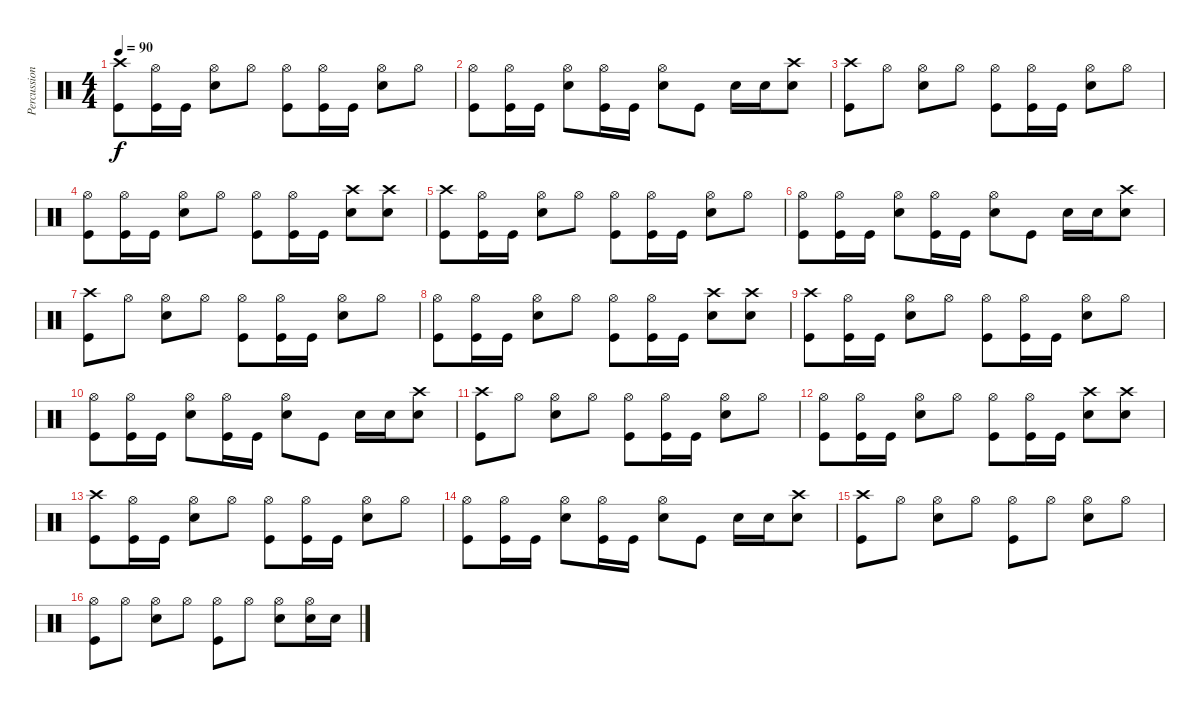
\track ("Percussion" "Percussion") {instrument percussion}
\staff {score}
\articulation defaults
\ts (4 4)
\tempo 90
\clef neutral
\ks c
("Crash high (hit)" "Kick (hit)").8{dy f} ("Hi-Hat (open)" "Kick (hit)").16 "Kick (hit)".16 ("Hi-Hat (open)" "Snare (hit) 2").8 "Hi-Hat (open)".8 ("Hi-Hat (open)" "Kick (hit)").8 ("Hi-Hat (open)" "Kick (hit)").16 "Kick (hit)".16 ("Hi-Hat (open)" "Snare (hit) 2").8 "Hi-Hat (open)".8 |
("Hi-Hat (open)" "Kick (hit)").8 ("Hi-Hat (open)" "Kick (hit)").16 "Kick (hit)".16 ("Hi-Hat (open)" "Snare (hit) 2").8 ("Hi-Hat (open)" "Kick (hit)").16 "Kick (hit)".16 ("Hi-Hat (open)" "Snare (hit) 2").8 "Kick (hit)".8 "Snare (hit) 2".16 "Snare (hit) 2".16 ("Crash high (hit)" "Snare (hit) 2").8 |
("Crash high (hit)" "Kick (hit)").8 "Hi-Hat (open)".8 ("Hi-Hat (open)" "Snare (hit) 2").8 "Hi-Hat (open)".8 ("Hi-Hat (open)" "Kick (hit)").8 ("Hi-Hat (open)" "Kick (hit)").16 "Kick (hit)".16 ("Hi-Hat (open)" "Snare (hit) 2").8 "Hi-Hat (open)".8 |
("Hi-Hat (open)" "Kick (hit)").8 ("Hi-Hat (open)" "Kick (hit)").16 "Kick (hit)".16 ("Hi-Hat (open)" "Snare (hit) 2").8 "Hi-Hat (open)".8 ("Hi-Hat (open)" "Kick (hit)").8 ("Hi-Hat (open)" "Kick (hit)").16 "Kick (hit)".16 ("Crash high (hit)" "Snare (hit) 2").8 ("Crash high (hit)" "Snare (hit) 2").8 |
("Crash high (hit)" "Kick (hit)").8 ("Hi-Hat (open)" "Kick (hit)").16 "Kick (hit)".16 ("Hi-Hat (open)" "Snare (hit) 2").8 "Hi-Hat (open)".8 ("Hi-Hat (open)" "Kick (hit)").8 ("Hi-Hat (open)" "Kick (hit)").16 "Kick (hit)".16 ("Hi-Hat (open)" "Snare (hit) 2").8 "Hi-Hat (open)".8 |
("Hi-Hat (open)" "Kick (hit)").8 ("Hi-Hat (open)" "Kick (hit)").16 "Kick (hit)".16 ("Hi-Hat (open)" "Snare (hit) 2").8 ("Hi-Hat (open)" "Kick (hit)").16 "Kick (hit)".16 ("Hi-Hat (open)" "Snare (hit) 2").8 "Kick (hit)".8 "Snare (hit) 2".16 "Snare (hit) 2".16 ("Crash high (hit)" "Snare (hit) 2").8 |
("Crash high (hit)" "Kick (hit)").8 "Hi-Hat (open)".8 ("Hi-Hat (open)" "Snare (hit) 2").8 "Hi-Hat (open)".8 ("Hi-Hat (open)" "Kick (hit)").8 ("Hi-Hat (open)" "Kick (hit)").16 "Kick (hit)".16 ("Hi-Hat (open)" "Snare (hit) 2").8 "Hi-Hat (open)".8 |
("Hi-Hat (open)" "Kick (hit)").8 ("Hi-Hat (open)" "Kick (hit)").16 "Kick (hit)".16 ("Hi-Hat (open)" "Snare (hit) 2").8 "Hi-Hat (open)".8 ("Hi-Hat (open)" "Kick (hit)").8 ("Hi-Hat (open)" "Kick (hit)").16 "Kick (hit)".16 ("Crash high (hit)" "Snare (hit) 2").8 ("Crash high (hit)" "Snare (hit) 2").8 |
("Crash high (hit)" "Kick (hit)").8 ("Hi-Hat (open)" "Kick (hit)").16 "Kick (hit)".16 ("Hi-Hat (open)" "Snare (hit) 2").8 "Hi-Hat (open)".8 ("Hi-Hat (open)" "Kick (hit)").8 ("Hi-Hat (open)" "Kick (hit)").16 "Kick (hit)".16 ("Hi-Hat (open)" "Snare (hit) 2").8 "Hi-Hat (open)".8 |
("Hi-Hat (open)" "Kick (hit)").8 ("Hi-Hat (open)" "Kick (hit)").16 "Kick (hit)".16 ("Hi-Hat (open)" "Snare (hit) 2").8 ("Hi-Hat (open)" "Kick (hit)").16 "Kick (hit)".16 ("Hi-Hat (open)" "Snare (hit) 2").8 "Kick (hit)".8 "Snare (hit) 2".16 "Snare (hit) 2".16 ("Crash high (hit)" "Snare (hit) 2").8 |
("Crash high (hit)" "Kick (hit)").8 "Hi-Hat (open)".8 ("Hi-Hat (open)" "Snare (hit) 2").8 "Hi-Hat (open)".8 ("Hi-Hat (open)" "Kick (hit)").8 ("Hi-Hat (open)" "Kick (hit)").16 "Kick (hit)".16 ("Hi-Hat (open)" "Snare (hit) 2").8 "Hi-Hat (open)".8 |
("Hi-Hat (open)" "Kick (hit)").8 ("Hi-Hat (open)" "Kick (hit)").16 "Kick (hit)".16 ("Hi-Hat (open)" "Snare (hit) 2").8 "Hi-Hat (open)".8 ("Hi-Hat (open)" "Kick (hit)").8 ("Hi-Hat (open)" "Kick (hit)").16 "Kick (hit)".16 ("Crash high (hit)" "Snare (hit) 2").8 ("Crash high (hit)" "Snare (hit) 2").8 |
("Crash high (hit)" "Kick (hit)").8 ("Hi-Hat (open)" "Kick (hit)").16 "Kick (hit)".16 ("Hi-Hat (open)" "Snare (hit) 2").8 "Hi-Hat (open)".8 ("Hi-Hat (open)" "Kick (hit)").8 ("Hi-Hat (open)" "Kick (hit)").16 "Kick (hit)".16 ("Hi-Hat (open)" "Snare (hit) 2").8 "Hi-Hat (open)".8 |
("Hi-Hat (open)" "Kick (hit)").8 ("Hi-Hat (open)" "Kick (hit)").16 "Kick (hit)".16 ("Hi-Hat (open)" "Snare (hit) 2").8 ("Hi-Hat (open)" "Kick (hit)").16 "Kick (hit)".16 ("Hi-Hat (open)" "Snare (hit) 2").8 "Kick (hit)".8 "Snare (hit) 2".16 "Snare (hit) 2".16 ("Crash high (hit)" "Snare (hit) 2").8 |
("Crash high (hit)" "Kick (hit)").8 "Hi-Hat (open)".8 ("Hi-Hat (open)" "Snare (hit) 2").8 "Hi-Hat (open)".8 ("Hi-Hat (open)" "Kick (hit)").8 "Hi-Hat (open)".8 ("Hi-Hat (open)" "Snare (hit) 2").8 "Hi-Hat (open)".8 |
("Hi-Hat (open)" "Kick (hit)").8 "Hi-Hat (open)".8 ("Hi-Hat (open)" "Snare (hit) 2").8 "Hi-Hat (open)".8 ("Hi-Hat (open)" "Kick (hit)").8 "Hi-Hat (open)".8 ("Hi-Hat (open)" "Snare (hit) 2").8 ("Hi-Hat (open)" "Snare (hit) 2").16 "Snare (hit) 2".16
